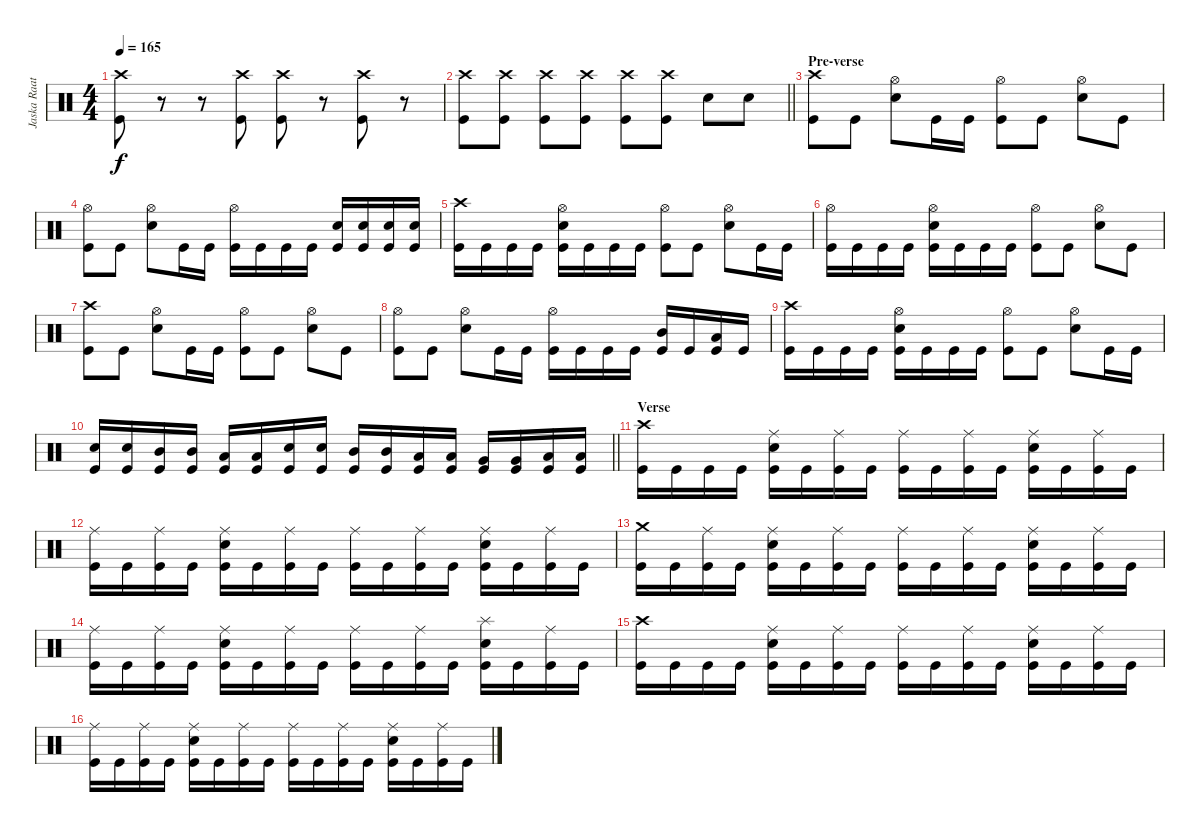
\track ("Jaska Raatikainen" "Jaska Raat") {instrument percussion}
\staff {score}
\articulation defaults
\ts (4 4)
\tempo 165
\clef neutral
\ks c
("Crash high (hit)" "Kick (hit)").8{dy f} r.8 r.8 ("Crash high (hit)" "Kick (hit)").8 ("Crash high (hit)" "Kick (hit)").8 r.8 ("Crash high (hit)" "Kick (hit)").8 r.8 |
\barLineRight lightlight
("Crash high (hit)" "Kick (hit)").8 ("Crash high (hit)" "Kick (hit)").8 ("Crash high (hit)" "Kick (hit)").8 ("Crash high (hit)" "Kick (hit)").8 ("Crash high (hit)" "Kick (hit)").8 ("Crash high (hit)" "Kick (hit)").8 "Electric Snare (hit)".8 "Electric Snare (hit)".8 |
\section ("" "Pre-verse")
("Crash high (hit)" "Kick (hit)").8 "Kick (hit)".8 ("Hi-Hat (open)" "Electric Snare (hit)").8 "Kick (hit)".16 "Kick (hit)".16 ("Hi-Hat (open)" "Kick (hit)").8 "Kick (hit)".8 ("Hi-Hat (open)" "Electric Snare (hit)").8 "Kick (hit)".8 |
("Hi-Hat (open)" "Kick (hit)").8 "Kick (hit)".8 ("Hi-Hat (open)" "Electric Snare (hit)").8 "Kick (hit)".16 "Kick (hit)".16 ("Hi-Hat (open)" "Kick (hit)").16 "Kick (hit)".16 "Kick (hit)".16 "Kick (hit)".16 ("Electric Snare (hit)" "Kick (hit)").16 ("Electric Snare (hit)" "Kick (hit)").16 ("Electric Snare (hit)" "Kick (hit)").16 ("Electric Snare (hit)" "Kick (hit)").16 |
("Crash high (hit)" "Kick (hit)").16 "Kick (hit)".16 "Kick (hit)".16 "Kick (hit)".16 ("Hi-Hat (open)" "Electric Snare (hit)" "Kick (hit)").16 "Kick (hit)".16 "Kick (hit)".16 "Kick (hit)".16 ("Hi-Hat (open)" "Kick (hit)").8 "Kick (hit)".8 ("Hi-Hat (open)" "Electric Snare (hit)").8 "Kick (hit)".16 "Kick (hit)".16 |
("Hi-Hat (open)" "Kick (hit)").16 "Kick (hit)".16 "Kick (hit)".16 "Kick (hit)".16 ("Hi-Hat (open)" "Electric Snare (hit)" "Kick (hit)").16 "Kick (hit)".16 "Kick (hit)".16 "Kick (hit)".16 ("Hi-Hat (open)" "Kick (hit)").8 "Kick (hit)".8 ("Hi-Hat (open)" "Electric Snare (hit)").8 "Kick (hit)".8 |
("Crash high (hit)" "Kick (hit)").8 "Kick (hit)".8 ("Hi-Hat (open)" "Electric Snare (hit)").8 "Kick (hit)".16 "Kick (hit)".16 ("Hi-Hat (open)" "Kick (hit)").8 "Kick (hit)".8 ("Hi-Hat (open)" "Electric Snare (hit)").8 "Kick (hit)".8 |
("Hi-Hat (open)" "Kick (hit)").8 "Kick (hit)".8 ("Hi-Hat (open)" "Electric Snare (hit)").8 "Kick (hit)".16 "Kick (hit)".16 ("Hi-Hat (open)" "Kick (hit)").16 "Kick (hit)".16 "Kick (hit)".16 "Kick (hit)".16 ("Mid Tom (hit)" "Kick (hit)").16 "Kick (hit)".16 ("Low Tom (hit)" "Kick (hit)").16 "Kick (hit)".16 |
("Crash high (hit)" "Kick (hit)").16 "Kick (hit)".16 "Kick (hit)".16 "Kick (hit)".16 ("Hi-Hat (open)" "Electric Snare (hit)" "Kick (hit)").16 "Kick (hit)".16 "Kick (hit)".16 "Kick (hit)".16 ("Hi-Hat (open)" "Kick (hit)").8 "Kick (hit)".8 ("Hi-Hat (open)" "Electric Snare (hit)").8 "Kick (hit)".16 "Kick (hit)".16 |
\barLineRight lightlight
("Electric Snare (hit)" "Kick (hit)").16 ("Electric Snare (hit)" "Kick (hit)").16 ("Mid Tom (hit)" "Kick (hit)").16 ("Mid Tom (hit)" "Kick (hit)").16 ("Low Tom (hit)" "Kick (hit)").16 ("Low Tom (hit)" "Kick (hit)").16 ("Electric Snare (hit)" "Kick (hit)").16 ("Electric Snare (hit)" "Kick (hit)").16 ("Mid Tom (hit)" "Kick (hit)").16 ("Mid Tom (hit)" "Kick (hit)").16 ("Low Tom (hit)" "Kick (hit)").16 ("Low Tom (hit)" "Kick (hit)").16 ("Very Low Tom (hit)" "Kick (hit)").16 ("Very Low Tom (hit)" "Kick (hit)").16 ("Low Floor Tom (hit)" "Kick (hit)").16 ("Low Floor Tom (hit)" "Kick (hit)").16 |
\section ("" "Verse")
("Crash high (hit)" "Kick (hit)").16 "Kick (hit)".16 "Kick (hit)".16 "Kick (hit)".16 ("Ride (middle)" "Electric Snare (hit)" "Kick (hit)").16 "Kick (hit)".16 ("Ride (middle)" "Kick (hit)").16 "Kick (hit)".16 ("Ride (middle)" "Kick (hit)").16 "Kick (hit)".16 ("Ride (middle)" "Kick (hit)").16 "Kick (hit)".16 ("Ride (middle)" "Electric Snare (hit)" "Kick (hit)").16 "Kick (hit)".16 ("Ride (middle)" "Kick (hit)").16 "Kick (hit)".16 |
("Ride (middle)" "Kick (hit)").16 "Kick (hit)".16 ("Ride (middle)" "Kick (hit)").16 "Kick (hit)".16 ("Ride (middle)" "Electric Snare (hit)" "Kick (hit)").16 "Kick (hit)".16 ("Ride (middle)" "Kick (hit)").16 "Kick (hit)".16 ("Ride (middle)" "Kick (hit)").16 "Kick (hit)".16 ("Ride (middle)" "Kick (hit)").16 "Kick (hit)".16 ("Ride (middle)" "Electric Snare (hit)" "Kick (hit)").16 "Kick (hit)".16 ("Ride (middle)" "Kick (hit)").16 "Kick (hit)".16 |
("Crash medium (hit)" "Kick (hit)").16 "Kick (hit)".16 ("Ride (middle)" "Kick (hit)").16 "Kick (hit)".16 ("Ride (middle)" "Electric Snare (hit)" "Kick (hit)").16 "Kick (hit)".16 ("Ride (middle)" "Kick (hit)").16 "Kick (hit)".16 ("Ride (middle)" "Kick (hit)").16 "Kick (hit)".16 ("Ride (middle)" "Kick (hit)").16 "Kick (hit)".16 ("Ride (middle)" "Electric Snare (hit)" "Kick (hit)").16 "Kick (hit)".16 ("Ride (middle)" "Kick (hit)").16 "Kick (hit)".16 |
("Ride (middle)" "Kick (hit)").16 "Kick (hit)".16 ("Ride (middle)" "Kick (hit)").16 "Kick (hit)".16 ("Ride (middle)" "Electric Snare (hit)" "Kick (hit)").16 "Kick (hit)".16 ("Ride (middle)" "Kick (hit)").16 "Kick (hit)".16 ("Ride (middle)" "Kick (hit)").16 "Kick (hit)".16 ("Ride (middle)" "Kick (hit)").16 "Kick (hit)".16 ("Splash (hit)" "Electric Snare (hit)" "Kick (hit)").16 "Kick (hit)".16 ("Ride (middle)" "Kick (hit)").16 "Kick (hit)".16 |
("Crash high (hit)" "Kick (hit)").16 "Kick (hit)".16 "Kick (hit)".16 "Kick (hit)".16 ("Ride (middle)" "Electric Snare (hit)" "Kick (hit)").16 "Kick (hit)".16 ("Ride (middle)" "Kick (hit)").16 "Kick (hit)".16 ("Ride (middle)" "Kick (hit)").16 "Kick (hit)".16 ("Ride (middle)" "Kick (hit)").16 "Kick (hit)".16 ("Ride (middle)" "Electric Snare (hit)" "Kick (hit)").16 "Kick (hit)".16 ("Ride (middle)" "Kick (hit)").16 "Kick (hit)".16 |
("Ride (middle)" "Kick (hit)").16 "Kick (hit)".16 ("Ride (middle)" "Kick (hit)").16 "Kick (hit)".16 ("Ride (middle)" "Electric Snare (hit)" "Kick (hit)").16 "Kick (hit)".16 ("Ride (middle)" "Kick (hit)").16 "Kick (hit)".16 ("Ride (middle)" "Kick (hit)").16 "Kick (hit)".16 ("Ride (middle)" "Kick (hit)").16 "Kick (hit)".16 ("Ride (middle)" "Electric Snare (hit)" "Kick (hit)").16 "Kick (hit)".16 ("Ride (middle)" "Kick (hit)").16 "Kick (hit)".16
